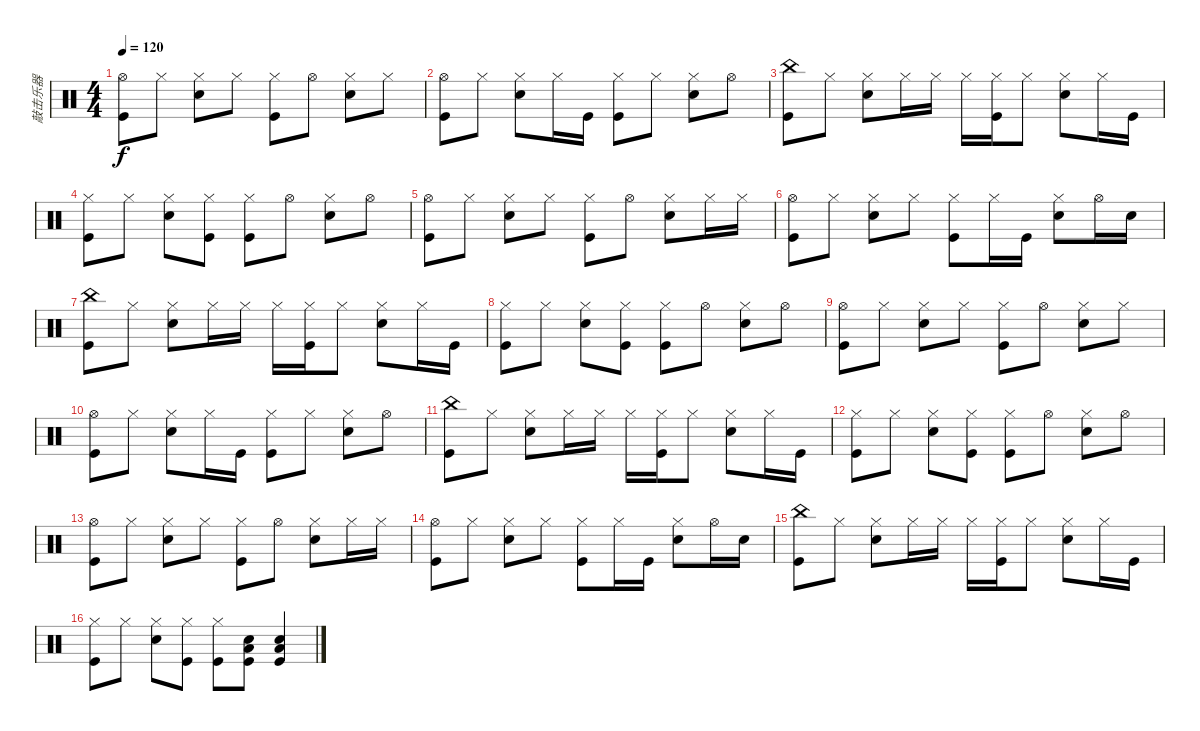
\track ("敲击乐器" "敲击乐器") {instrument percussion}
\staff {score}
\articulation defaults
\ts (4 4)
\tempo 120
\clef neutral
\ks c
("Kick (hit)" "Hi-Hat (open)").8{dy f} "Hi-Hat (closed)".8 ("Snare (hit) 2" "Hi-Hat (closed)").8 "Hi-Hat (closed)".8 ("Kick (hit)" "Hi-Hat (closed)").8 "Hi-Hat (open)".8 ("Snare (hit) 2" "Hi-Hat (closed)").8 "Hi-Hat (closed)".8 |
("Kick (hit)" "Hi-Hat (open)").8 "Hi-Hat (closed)".8 ("Snare (hit) 2" "Hi-Hat (closed)").8 "Hi-Hat (closed)".16 "Kick (hit)".16 ("Kick (hit)" "Hi-Hat (closed)").8 "Hi-Hat (closed)".8 ("Snare (hit) 2" "Hi-Hat (closed)").8 "Hi-Hat (open)".8 |
("Kick (hit)" "China (hit)").8 "Hi-Hat (closed)".8 ("Snare (hit) 2" "Hi-Hat (closed)").8 "Hi-Hat (closed)".16 "Hi-Hat (closed)".16 "Hi-Hat (closed)".16 ("Kick (hit)" "Hi-Hat (closed)").16 "Hi-Hat (closed)".8 ("Snare (hit) 2" "Hi-Hat (closed)").8 "Hi-Hat (closed)".16 "Kick (hit)".16 |
("Kick (hit)" "Hi-Hat (closed)").8 "Hi-Hat (closed)".8 ("Snare (hit) 2" "Hi-Hat (closed)").8 ("Hi-Hat (closed)" "Kick (hit)").8 ("Kick (hit)" "Hi-Hat (closed)").8 "Hi-Hat (open)".8 ("Snare (hit) 2" "Hi-Hat (closed)").8 "Hi-Hat (open)".8 |
("Kick (hit)" "Hi-Hat (open)").8 "Hi-Hat (closed)".8 ("Snare (hit) 2" "Hi-Hat (closed)").8 "Hi-Hat (closed)".8 ("Kick (hit)" "Hi-Hat (closed)").8 "Hi-Hat (open)".8 ("Snare (hit) 2" "Hi-Hat (closed)").8 "Hi-Hat (closed)".16 "Hi-Hat (closed)".16 |
("Kick (hit)" "Hi-Hat (open)").8 "Hi-Hat (closed)".8 ("Snare (hit) 2" "Hi-Hat (closed)").8 "Hi-Hat (closed)".8 ("Kick (hit)" "Hi-Hat (closed)").8 "Hi-Hat (closed)".16 "Kick (hit)".16 ("Snare (hit) 2" "Hi-Hat (closed)").8 "Hi-Hat (open)".16 "Snare (hit) 2".16 |
("Kick (hit)" "China (hit)").8 "Hi-Hat (closed)".8 ("Snare (hit) 2" "Hi-Hat (closed)").8 "Hi-Hat (closed)".16 "Hi-Hat (closed)".16 "Hi-Hat (closed)".16 ("Kick (hit)" "Hi-Hat (closed)").16 "Hi-Hat (closed)".8 ("Snare (hit) 2" "Hi-Hat (closed)").8 "Hi-Hat (closed)".16 "Kick (hit)".16 |
("Kick (hit)" "Hi-Hat (closed)").8 "Hi-Hat (closed)".8 ("Snare (hit) 2" "Hi-Hat (closed)").8 ("Hi-Hat (closed)" "Kick (hit)").8 ("Kick (hit)" "Hi-Hat (closed)").8 "Hi-Hat (open)".8 ("Snare (hit) 2" "Hi-Hat (closed)").8 "Hi-Hat (open)".8 |
("Kick (hit)" "Hi-Hat (open)").8 "Hi-Hat (closed)".8 ("Snare (hit) 2" "Hi-Hat (closed)").8 "Hi-Hat (closed)".8 ("Kick (hit)" "Hi-Hat (closed)").8 "Hi-Hat (open)".8 ("Snare (hit) 2" "Hi-Hat (closed)").8 "Hi-Hat (closed)".8 |
("Kick (hit)" "Hi-Hat (open)").8 "Hi-Hat (closed)".8 ("Snare (hit) 2" "Hi-Hat (closed)").8 "Hi-Hat (closed)".16 "Kick (hit)".16 ("Kick (hit)" "Hi-Hat (closed)").8 "Hi-Hat (closed)".8 ("Snare (hit) 2" "Hi-Hat (closed)").8 "Hi-Hat (open)".8 |
("Kick (hit)" "China (hit)").8 "Hi-Hat (closed)".8 ("Snare (hit) 2" "Hi-Hat (closed)").8 "Hi-Hat (closed)".16 "Hi-Hat (closed)".16 "Hi-Hat (closed)".16 ("Kick (hit)" "Hi-Hat (closed)").16 "Hi-Hat (closed)".8 ("Snare (hit) 2" "Hi-Hat (closed)").8 "Hi-Hat (closed)".16 "Kick (hit)".16 |
("Kick (hit)" "Hi-Hat (closed)").8 "Hi-Hat (closed)".8 ("Snare (hit) 2" "Hi-Hat (closed)").8 ("Hi-Hat (closed)" "Kick (hit)").8 ("Kick (hit)" "Hi-Hat (closed)").8 "Hi-Hat (open)".8 ("Snare (hit) 2" "Hi-Hat (closed)").8 "Hi-Hat (open)".8 |
("Kick (hit)" "Hi-Hat (open)").8 "Hi-Hat (closed)".8 ("Snare (hit) 2" "Hi-Hat (closed)").8 "Hi-Hat (closed)".8 ("Kick (hit)" "Hi-Hat (closed)").8 "Hi-Hat (open)".8 ("Snare (hit) 2" "Hi-Hat (closed)").8 "Hi-Hat (closed)".16 "Hi-Hat (closed)".16 |
("Kick (hit)" "Hi-Hat (open)").8 "Hi-Hat (closed)".8 ("Snare (hit) 2" "Hi-Hat (closed)").8 "Hi-Hat (closed)".8 ("Kick (hit)" "Hi-Hat (closed)").8 "Hi-Hat (closed)".16 "Kick (hit)".16 ("Snare (hit) 2" "Hi-Hat (closed)").8 "Hi-Hat (open)".16 "Snare (hit) 2".16 |
("Kick (hit)" "China (hit)").8 "Hi-Hat (closed)".8 ("Snare (hit) 2" "Hi-Hat (closed)").8 "Hi-Hat (closed)".16 "Hi-Hat (closed)".16 "Hi-Hat (closed)".16 ("Kick (hit)" "Hi-Hat (closed)").16 "Hi-Hat (closed)".8 ("Snare (hit) 2" "Hi-Hat (closed)").8 "Hi-Hat (closed)".16 "Kick (hit)".16 |
("Kick (hit)" "Hi-Hat (closed)").8 "Hi-Hat (closed)".8 ("Snare (hit) 2" "Hi-Hat (closed)").8 ("Hi-Hat (closed)" "Kick (hit)").8 ("Kick (hit)" "Hi-Hat (closed)").8 ("Kick (hit)" "Snare (hit) 2" "Low Tom (hit)").8 ("Snare (hit) 2" "Kick (hit)" "Low Tom (hit)").4
